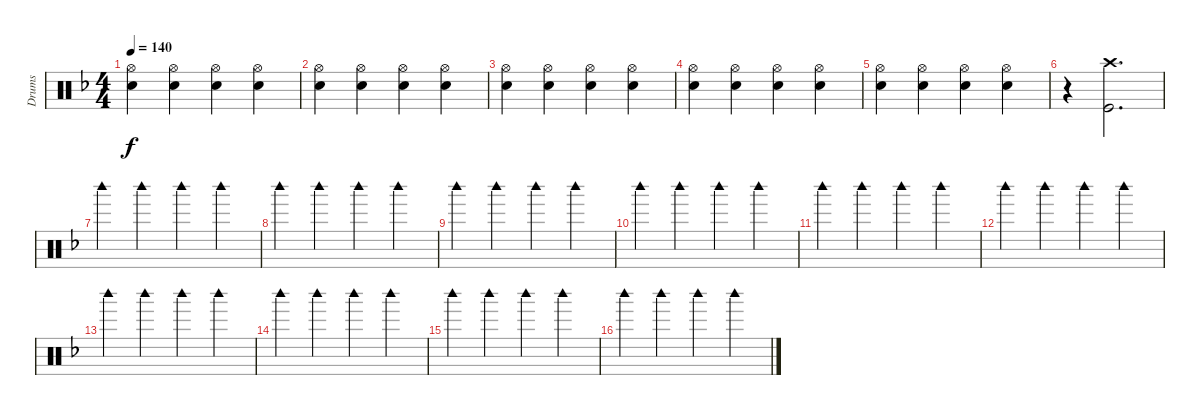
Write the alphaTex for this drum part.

\track ("Drums" "Drums") {instrument percussion}
\staff {score}
\articulation defaults
\ts (4 4)
\tempo 140
\clef neutral
\ks f
("Hi-Hat (open)" "Snare (hit) 2").4{dy f} ("Hi-Hat (open)" "Snare (hit) 2").4 ("Hi-Hat (open)" "Snare (hit) 2").4 ("Hi-Hat (open)" "Snare (hit) 2").4 |
("Hi-Hat (open)" "Snare (hit) 2").4 ("Hi-Hat (open)" "Snare (hit) 2").4 ("Hi-Hat (open)" "Snare (hit) 2").4 ("Hi-Hat (open)" "Snare (hit) 2").4 |
("Hi-Hat (open)" "Snare (hit) 2").4 ("Hi-Hat (open)" "Snare (hit) 2").4 ("Hi-Hat (open)" "Snare (hit) 2").4 ("Hi-Hat (open)" "Snare (hit) 2").4 |
("Hi-Hat (open)" "Snare (hit) 2").4 ("Hi-Hat (open)" "Snare (hit) 2").4 ("Hi-Hat (open)" "Snare (hit) 2").4 ("Hi-Hat (open)" "Snare (hit) 2").4 |
("Hi-Hat (open)" "Snare (hit) 2").4 ("Hi-Hat (open)" "Snare (hit) 2").4 ("Hi-Hat (open)" "Snare (hit) 2").4 ("Hi-Hat (open)" "Snare (hit) 2").4 |
r.4 ("Crash high (hit)" "Kick (hit)").2{d} |
"Woodblock high (hit)".4 "Woodblock high (hit)".4 "Woodblock high (hit)".4 "Woodblock high (hit)".4 |
"Woodblock high (hit)".4 "Woodblock high (hit)".4 "Woodblock high (hit)".4 "Woodblock high (hit)".4 |
"Woodblock high (hit)".4 "Woodblock high (hit)".4 "Woodblock high (hit)".4 "Woodblock high (hit)".4 |
"Woodblock high (hit)".4 "Woodblock high (hit)".4 "Woodblock high (hit)".4 "Woodblock high (hit)".4 |
"Woodblock high (hit)".4 "Woodblock high (hit)".4 "Woodblock high (hit)".4 "Woodblock high (hit)".4 |
"Woodblock high (hit)".4 "Woodblock high (hit)".4 "Woodblock high (hit)".4 "Woodblock high (hit)".4 |
"Woodblock high (hit)".4 "Woodblock high (hit)".4 "Woodblock high (hit)".4 "Woodblock high (hit)".4 |
"Woodblock high (hit)".4 "Woodblock high (hit)".4 "Woodblock high (hit)".4 "Woodblock high (hit)".4 |
"Woodblock high (hit)".4 "Woodblock high (hit)".4 "Woodblock high (hit)".4 "Woodblock high (hit)".4 |
"Woodblock high (hit)".4 "Woodblock high (hit)".4 "Woodblock high (hit)".4 "Woodblock high (hit)".4
